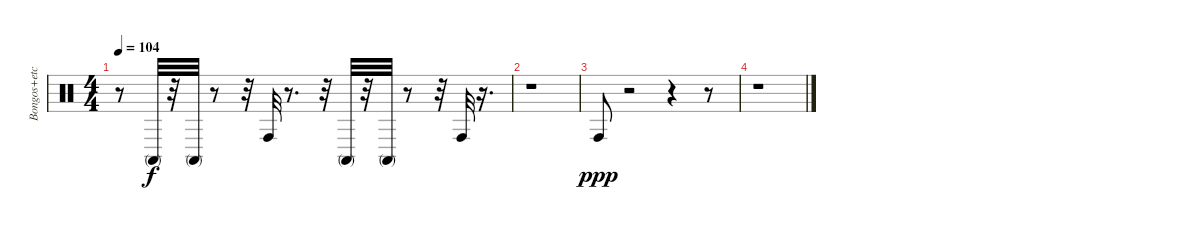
\track ("Bongos+etc" "Bongos+etc") {instrument percussion}
\staff {score}
\articulation defaults
\ts (4 4)
\tempo 104
\clef neutral
\ks c
r.8{dy f} "Conga high (mute)".32 r.32 "Conga high (mute)".32 r.8 r.32 "Conga high (hit)".32 r.8{d} r.32 "Conga high (mute)".32 r.32 "Conga high (mute)".32 r.8 r.32 "Conga high (hit)".32 r.16{d} |
r.1 |
"Conga high (hit)".8{dy ppp} r.2 r.4 r.8 |
r.1
